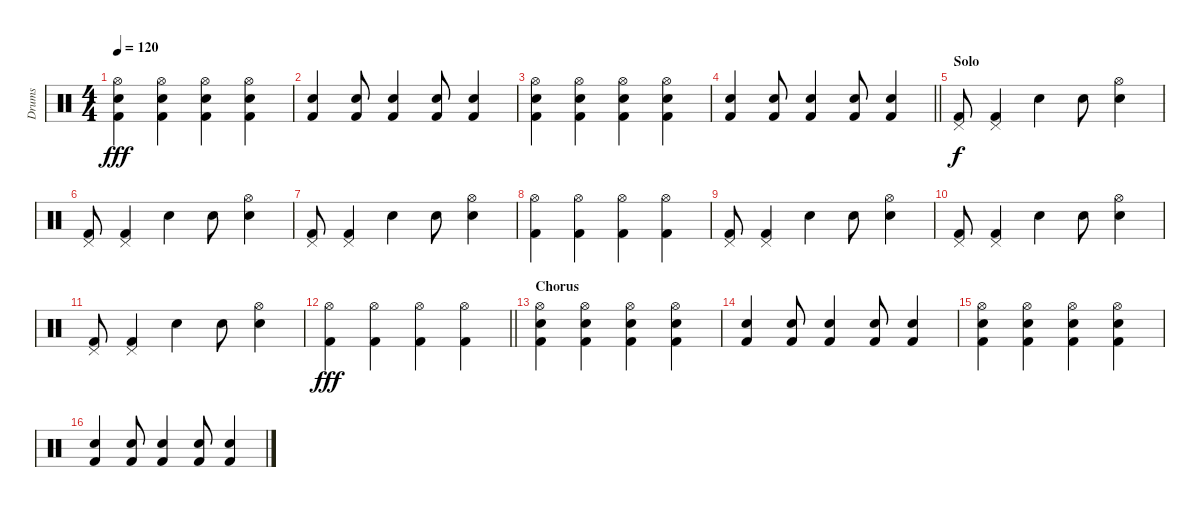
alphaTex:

\track ("Drums" "Drums") {instrument percussion}
\staff {score}
\articulation defaults
\ts (4 4)
\tempo 120
\clef neutral
\ks c
("Hi-Hat (open)" "Snare (hit) 2" "Kick (hit) 2").4{dy fff} ("Hi-Hat (open)" "Snare (hit) 2" "Kick (hit) 2").4 ("Hi-Hat (open)" "Snare (hit) 2" "Kick (hit) 2").4 ("Hi-Hat (open)" "Snare (hit) 2" "Kick (hit) 2").4 |
("Kick (hit) 2" "Snare (hit) 2").4 ("Kick (hit) 2" "Snare (hit) 2").8 ("Kick (hit) 2" "Snare (hit) 2").4 ("Kick (hit) 2" "Snare (hit) 2").8 ("Kick (hit) 2" "Snare (hit) 2").4 |
("Hi-Hat (open)" "Snare (hit) 2" "Kick (hit) 2").4 ("Hi-Hat (open)" "Snare (hit) 2" "Kick (hit) 2").4 ("Hi-Hat (open)" "Snare (hit) 2" "Kick (hit) 2").4 ("Hi-Hat (open)" "Snare (hit) 2" "Kick (hit) 2").4 |
\barLineRight lightlight
("Kick (hit) 2" "Snare (hit) 2").4 ("Kick (hit) 2" "Snare (hit) 2").8 ("Kick (hit) 2" "Snare (hit) 2").4 ("Kick (hit) 2" "Snare (hit) 2").8 ("Kick (hit) 2" "Snare (hit) 2").4 |
\section ("" "Solo")
("Pedal Hi-Hat (hit)" "Kick (hit) 2").8{dy f} ("Pedal Hi-Hat (hit)" "Kick (hit) 2").4 "Electric Snare (hit)".4 "Electric Snare (hit)".8 ("Hi-Hat (open)" "Snare (hit) 2").4 |
("Pedal Hi-Hat (hit)" "Kick (hit) 2").8 ("Pedal Hi-Hat (hit)" "Kick (hit) 2").4 "Electric Snare (hit)".4 "Electric Snare (hit)".8 ("Hi-Hat (open)" "Snare (hit) 2").4 |
("Pedal Hi-Hat (hit)" "Kick (hit) 2").8 ("Pedal Hi-Hat (hit)" "Kick (hit) 2").4 "Electric Snare (hit)".4 "Electric Snare (hit)".8 ("Hi-Hat (open)" "Snare (hit) 2").4 |
("Hi-Hat (open)" "Kick (hit) 2").4 ("Hi-Hat (open)" "Kick (hit) 2").4 ("Hi-Hat (open)" "Kick (hit) 2").4 ("Hi-Hat (open)" "Kick (hit) 2").4 |
("Pedal Hi-Hat (hit)" "Kick (hit) 2").8 ("Pedal Hi-Hat (hit)" "Kick (hit) 2").4 "Electric Snare (hit)".4 "Electric Snare (hit)".8 ("Hi-Hat (open)" "Snare (hit) 2").4 |
("Pedal Hi-Hat (hit)" "Kick (hit) 2").8 ("Pedal Hi-Hat (hit)" "Kick (hit) 2").4 "Electric Snare (hit)".4 "Electric Snare (hit)".8 ("Hi-Hat (open)" "Snare (hit) 2").4 |
("Pedal Hi-Hat (hit)" "Kick (hit) 2").8 ("Pedal Hi-Hat (hit)" "Kick (hit) 2").4 "Electric Snare (hit)".4 "Electric Snare (hit)".8 ("Hi-Hat (open)" "Snare (hit) 2").4 |
\barLineRight lightlight
("Hi-Hat (open)" "Kick (hit) 2").4{dy fff} ("Hi-Hat (open)" "Kick (hit) 2").4 ("Hi-Hat (open)" "Kick (hit) 2").4 ("Hi-Hat (open)" "Kick (hit) 2").4 |
\section ("" "Chorus")
("Hi-Hat (open)" "Snare (hit) 2" "Kick (hit) 2").4 ("Hi-Hat (open)" "Snare (hit) 2" "Kick (hit) 2").4 ("Hi-Hat (open)" "Snare (hit) 2" "Kick (hit) 2").4 ("Hi-Hat (open)" "Snare (hit) 2" "Kick (hit) 2").4 |
("Kick (hit) 2" "Snare (hit) 2").4 ("Kick (hit) 2" "Snare (hit) 2").8 ("Kick (hit) 2" "Snare (hit) 2").4 ("Kick (hit) 2" "Snare (hit) 2").8 ("Kick (hit) 2" "Snare (hit) 2").4 |
("Hi-Hat (open)" "Snare (hit) 2" "Kick (hit) 2").4 ("Hi-Hat (open)" "Snare (hit) 2" "Kick (hit) 2").4 ("Hi-Hat (open)" "Snare (hit) 2" "Kick (hit) 2").4 ("Hi-Hat (open)" "Snare (hit) 2" "Kick (hit) 2").4 |
("Kick (hit) 2" "Snare (hit) 2").4 ("Kick (hit) 2" "Snare (hit) 2").8 ("Kick (hit) 2" "Snare (hit) 2").4 ("Kick (hit) 2" "Snare (hit) 2").8 ("Kick (hit) 2" "Snare (hit) 2").4
